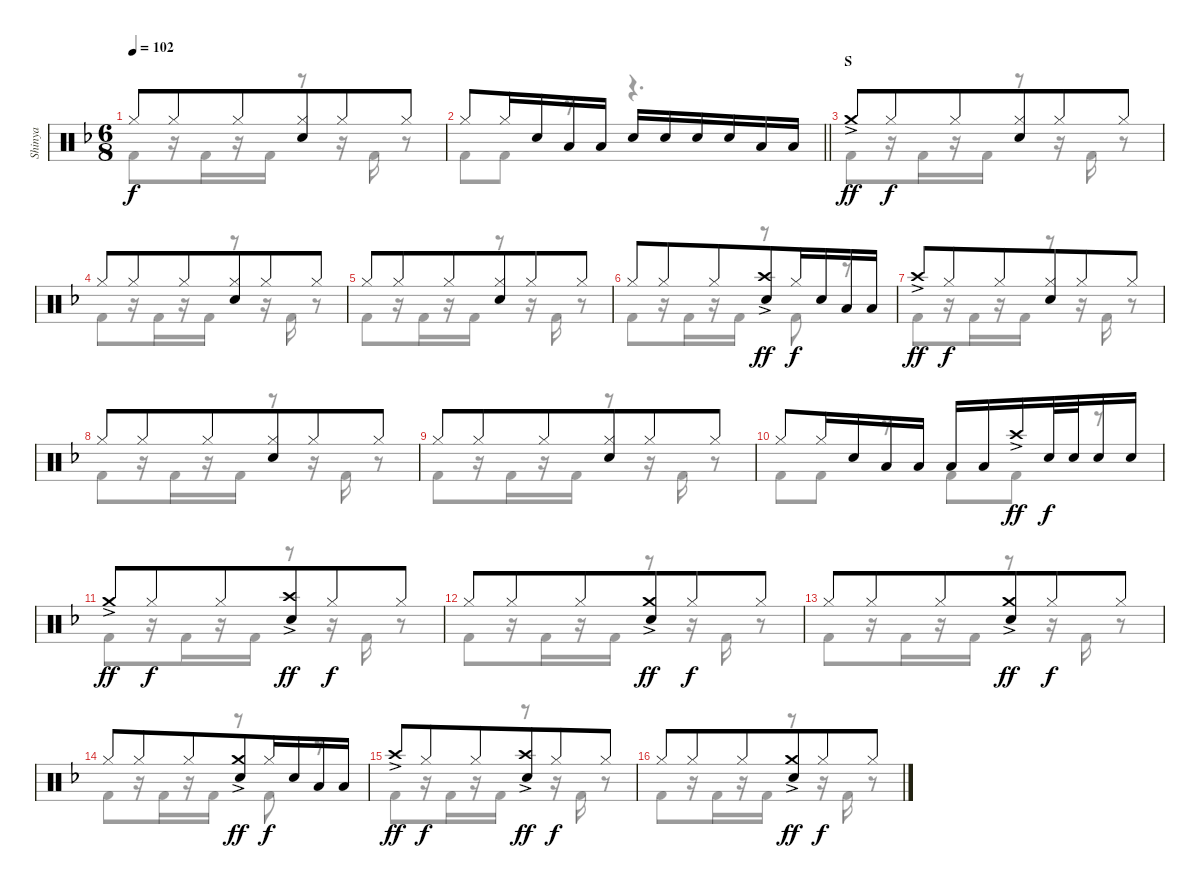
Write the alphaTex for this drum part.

\track ("Shinya" "Shinya") {mute instrument percussion}
\staff {score}
\articulation defaults
\voice
\ts (6 8)
\tempo 102
\clef neutral
\ks f "Hi-Hat (closed)".8{dy f} "Hi-Hat (closed)".8 "Hi-Hat (closed)".8{beam merge}
("Hi-Hat (closed)" "Snare (hit) 2").8{beam merge} "Hi-Hat (closed)".8 "Hi-Hat (closed)".8 |
\barLineRight lightlight "Hi-Hat (closed)".8 "Hi-Hat (closed)".16 "Snare (hit) 2".16{beam merge} "Low Tom (hit)".16{beam merge} "Low Tom (hit)".16 "Snare (hit) 2".16 "Snare (hit) 2".16 "Snare (hit) 2".16{beam merge} "Snare (hit) 2".16{beam merge} "Low Tom (hit)".16 "Low Tom (hit)".16
|
\section ("" "S")
"Crash medium (hit)"{ac}.8{dy ff} "Hi-Hat (closed)".8{dy f} "Hi-Hat (closed)".8{beam merge} ("Hi-Hat (closed)" "Snare (hit) 2").8{beam merge} "Hi-Hat (closed)".8 "Hi-Hat (closed)".8 |
"Hi-Hat (closed)".8 "Hi-Hat (closed)".8 "Hi-Hat (closed)".8{beam merge} ("Hi-Hat (closed)" "Snare (hit) 2").8{beam merge} "Hi-Hat (closed)".8 "Hi-Hat (closed)".8 |
"Hi-Hat (closed)".8 "Hi-Hat (closed)".8 "Hi-Hat (closed)".8{beam merge} ("Hi-Hat (closed)" "Snare (hit) 2").8{beam merge} "Hi-Hat (closed)".8 "Hi-Hat (closed)".8 |
"Hi-Hat (closed)".8 "Hi-Hat (closed)".8 "Hi-Hat (closed)".8{beam merge} ("Crash high (hit)"{ac} "Snare (hit) 2").8{dy ff beam merge} "Hi-Hat (closed)".16{dy f} "Snare (hit) 2".16 "Low Tom (hit)".16 "Low Tom (hit)".16 |
"Crash high (hit)"{ac}.8{dy ff} "Hi-Hat (closed)".8{dy f} "Hi-Hat (closed)".8{beam merge} ("Hi-Hat (closed)" "Snare (hit) 2").8{beam merge} "Hi-Hat (closed)".8 "Hi-Hat (closed)".8 |
"Hi-Hat (closed)".8 "Hi-Hat (closed)".8 "Hi-Hat (closed)".8{beam merge} ("Hi-Hat (closed)" "Snare (hit) 2").8{beam merge} "Hi-Hat (closed)".8 "Hi-Hat (closed)".8 |
"Hi-Hat (closed)".8 "Hi-Hat (closed)".8 "Hi-Hat (closed)".8{beam merge} ("Hi-Hat (closed)" "Snare (hit) 2").8{beam merge} "Hi-Hat (closed)".8 "Hi-Hat (closed)".8 |
"Hi-Hat (closed)".8 "Hi-Hat (closed)".16 "Snare (hit) 2".16{beam merge} "Low Tom (hit)".16{beam merge} "Low Tom (hit)".16 "Low Tom (hit)".16 "Low Tom (hit)".16 "Crash high (hit)"{ac}.16{dy ff beam merge} "Snare (hit) 2".32{dy f beam merge} "Snare (hit) 2".32{beam merge} "Snare (hit) 2".16 "Snare (hit) 2".16 |
"Crash medium (hit)"{ac}.8{dy ff} "Hi-Hat (closed)".8{dy f} "Hi-Hat (closed)".8{beam merge} ("Crash high (hit)"{ac} "Snare (hit) 2").8{dy ff beam merge} "Hi-Hat (closed)".8{dy f} "Hi-Hat (closed)".8 |
"Hi-Hat (closed)".8 "Hi-Hat (closed)".8 "Hi-Hat (closed)".8{beam merge} ("Crash medium (hit)"{ac} "Snare (hit) 2").8{dy ff beam merge} "Hi-Hat (closed)".8{dy f} "Hi-Hat (closed)".8 |
"Hi-Hat (closed)".8 "Hi-Hat (closed)".8 "Hi-Hat (closed)".8{beam merge} ("Crash medium (hit)"{ac} "Snare (hit) 2").8{dy ff beam merge} "Hi-Hat (closed)".8{dy f} "Hi-Hat (closed)".8 |
"Hi-Hat (closed)".8 "Hi-Hat (closed)".8 "Hi-Hat (closed)".8{beam merge} ("Crash medium (hit)"{ac} "Snare (hit) 2").8{dy ff beam merge} "Hi-Hat (closed)".16{dy f} "Snare (hit) 2".16 "Low Tom (hit)".16 "Low Tom (hit)".16 |
"Crash high (hit)"{ac}.8{dy ff} "Hi-Hat (closed)".8{dy f} "Hi-Hat (closed)".8{beam merge} ("Crash high (hit)"{ac} "Snare (hit) 2").8{dy ff beam merge} "Hi-Hat (closed)".8{dy f} "Hi-Hat (closed)".8 |
"Hi-Hat (closed)".8 "Hi-Hat (closed)".8 "Hi-Hat (closed)".8{beam merge} ("Crash medium (hit)"{ac} "Snare (hit) 2").8{dy ff beam merge} "Hi-Hat (closed)".8{dy f} "Hi-Hat (closed)".8
\voice
\clef neutral
\ottava regular
\simile none
\ks f "Kick (hit) 2".8{dy f}
r.16 "Kick (hit) 2".16{beam merge} r.16 "Kick (hit) 2".16 r.8 r.16 "Kick (hit) 2".16 r.8 |
\barLineRight lightlight "Kick (hit) 2".8 "Kick (hit) 2".8
r.8 r.4{d} |
"Kick (hit) 2".8 r.16 "Kick (hit) 2".16{beam merge} r.16 "Kick (hit) 2".16 r.8{beam merge} r.16 "Kick (hit) 2".16 r.8 |
"Kick (hit) 2".8 r.16 "Kick (hit) 2".16{beam merge} r.16 "Kick (hit) 2".16 r.8{beam merge} r.16 "Kick (hit) 2".16 r.8 |
"Kick (hit) 2".8 r.16 "Kick (hit) 2".16{beam merge} r.16 "Kick (hit) 2".16 r.8{beam merge} r.16 "Kick (hit) 2".16 r.8 |
"Kick (hit) 2".8 r.16 "Kick (hit) 2".16{beam merge} r.16 "Kick (hit) 2".16 r.8 "Kick (hit) 2".8 r.8 |
"Kick (hit) 2".8 r.16 "Kick (hit) 2".16{beam merge} r.16 "Kick (hit) 2".16 r.8{beam merge} r.16 "Kick (hit) 2".16 r.8 |
"Kick (hit) 2".8 r.16 "Kick (hit) 2".16{beam merge} r.16 "Kick (hit) 2".16 r.8{beam merge} r.16 "Kick (hit) 2".16 r.8 |
"Kick (hit) 2".8 r.16 "Kick (hit) 2".16{beam merge} r.16 "Kick (hit) 2".16 r.8{beam merge} r.16 "Kick (hit) 2".16 r.8 |
"Kick (hit) 2".8 "Kick (hit) 2".8 r.8 "Kick (hit) 2".8 "Kick (hit) 2".8 r.8 |
"Kick (hit) 2".8 r.16 "Kick (hit) 2".16{beam merge} r.16 "Kick (hit) 2".16 r.8{beam merge} r.16 "Kick (hit) 2".16 r.8 |
"Kick (hit) 2".8 r.16 "Kick (hit) 2".16{beam merge} r.16 "Kick (hit) 2".16 r.8{beam merge} r.16 "Kick (hit) 2".16 r.8 |
"Kick (hit) 2".8 r.16 "Kick (hit) 2".16{beam merge} r.16 "Kick (hit) 2".16 r.8{beam merge} r.16 "Kick (hit) 2".16 r.8 |
"Kick (hit) 2".8 r.16 "Kick (hit) 2".16{beam merge} r.16 "Kick (hit) 2".16 r.8 "Kick (hit) 2".8 r.8 |
"Kick (hit) 2".8 r.16 "Kick (hit) 2".16{beam merge} r.16 "Kick (hit) 2".16 r.8{beam merge} r.16 "Kick (hit) 2".16 r.8 |
"Kick (hit) 2".8 r.16 "Kick (hit) 2".16{beam merge} r.16 "Kick (hit) 2".16 r.8{beam merge} r.16 "Kick (hit) 2".16 r.8
